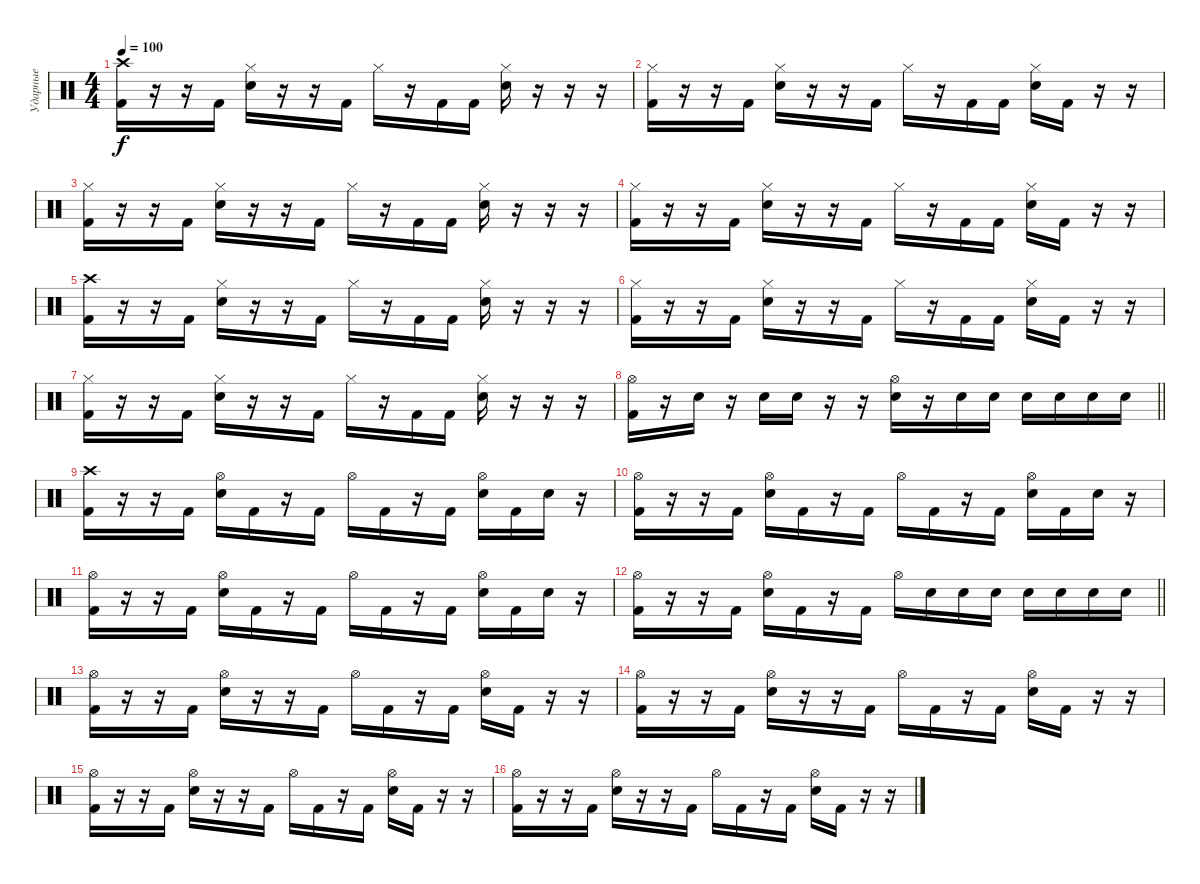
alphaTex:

\track ("Ударные" "Ударные") {instrument percussion}
\staff {score}
\articulation defaults
\ts (4 4)
\tempo 100
\clef neutral
\ks c
("Crash high (hit)" "Kick (hit) 2").16{dy f} r.16 r.16 "Kick (hit) 2".16 ("Hi-Hat (closed)" "Electric Snare (hit)").16 r.16 r.16 "Kick (hit) 2".16 "Hi-Hat (closed)".16 r.16 "Kick (hit) 2".16 "Kick (hit) 2".16 ("Hi-Hat (closed)" "Electric Snare (hit)").16 r.16 r.16 r.16 |
("Hi-Hat (closed)" "Kick (hit) 2").16 r.16 r.16 "Kick (hit) 2".16 ("Hi-Hat (closed)" "Electric Snare (hit)").16 r.16 r.16 "Kick (hit) 2".16 "Hi-Hat (closed)".16 r.16 "Kick (hit) 2".16 "Kick (hit) 2".16 ("Hi-Hat (closed)" "Electric Snare (hit)").16 "Kick (hit) 2".16 r.16 r.16 |
("Hi-Hat (closed)" "Kick (hit) 2").16 r.16 r.16 "Kick (hit) 2".16 ("Hi-Hat (closed)" "Electric Snare (hit)").16 r.16 r.16 "Kick (hit) 2".16 "Hi-Hat (closed)".16 r.16 "Kick (hit) 2".16 "Kick (hit) 2".16 ("Hi-Hat (closed)" "Electric Snare (hit)").16 r.16 r.16 r.16 |
("Hi-Hat (closed)" "Kick (hit) 2").16 r.16 r.16 "Kick (hit) 2".16 ("Hi-Hat (closed)" "Electric Snare (hit)").16 r.16 r.16 "Kick (hit) 2".16 "Hi-Hat (closed)".16 r.16 "Kick (hit) 2".16 "Kick (hit) 2".16 ("Hi-Hat (closed)" "Electric Snare (hit)").16 "Kick (hit) 2".16 r.16 r.16 |
("Crash high (hit)" "Kick (hit) 2").16 r.16 r.16 "Kick (hit) 2".16 ("Hi-Hat (closed)" "Electric Snare (hit)").16 r.16 r.16 "Kick (hit) 2".16 "Hi-Hat (closed)".16 r.16 "Kick (hit) 2".16 "Kick (hit) 2".16 ("Hi-Hat (closed)" "Electric Snare (hit)").16 r.16 r.16 r.16 |
("Hi-Hat (closed)" "Kick (hit) 2").16 r.16 r.16 "Kick (hit) 2".16 ("Hi-Hat (closed)" "Electric Snare (hit)").16 r.16 r.16 "Kick (hit) 2".16 "Hi-Hat (closed)".16 r.16 "Kick (hit) 2".16 "Kick (hit) 2".16 ("Hi-Hat (closed)" "Electric Snare (hit)").16 "Kick (hit) 2".16 r.16 r.16 |
("Hi-Hat (closed)" "Kick (hit) 2").16 r.16 r.16 "Kick (hit) 2".16 ("Hi-Hat (closed)" "Electric Snare (hit)").16 r.16 r.16 "Kick (hit) 2".16 "Hi-Hat (closed)".16 r.16 "Kick (hit) 2".16 "Kick (hit) 2".16 ("Hi-Hat (closed)" "Electric Snare (hit)").16 r.16 r.16 r.16 |
\barLineRight lightlight
("Hi-Hat (open)" "Kick (hit) 2").16 r.16 "Electric Snare (hit)".16 r.16 "Electric Snare (hit)".16 "Electric Snare (hit)".16 r.16 r.16 ("Hi-Hat (open)" "Electric Snare (hit)").16 r.16 "Electric Snare (hit)".16 "Electric Snare (hit)".16 "Electric Snare (hit)".16 "Electric Snare (hit)".16 "Electric Snare (hit)".16 "Electric Snare (hit)".16 |
("Crash high (hit)" "Kick (hit) 2").16 r.16 r.16 "Kick (hit) 2".16 ("Hi-Hat (open)" "Electric Snare (hit)").16 "Kick (hit) 2".16 r.16 "Kick (hit) 2".16 "Hi-Hat (open)".16 "Kick (hit) 2".16 r.16 "Kick (hit) 2".16 ("Hi-Hat (open)" "Electric Snare (hit)").16 "Kick (hit) 2".16 "Electric Snare (hit)".16 r.16 |
("Hi-Hat (open)" "Kick (hit) 2").16 r.16 r.16 "Kick (hit) 2".16 ("Hi-Hat (open)" "Electric Snare (hit)").16 "Kick (hit) 2".16 r.16 "Kick (hit) 2".16 "Hi-Hat (open)".16 "Kick (hit) 2".16 r.16 "Kick (hit) 2".16 ("Hi-Hat (open)" "Electric Snare (hit)").16 "Kick (hit) 2".16 "Electric Snare (hit)".16 r.16 |
("Hi-Hat (open)" "Kick (hit) 2").16 r.16 r.16 "Kick (hit) 2".16 ("Hi-Hat (open)" "Electric Snare (hit)").16 "Kick (hit) 2".16 r.16 "Kick (hit) 2".16 "Hi-Hat (open)".16 "Kick (hit) 2".16 r.16 "Kick (hit) 2".16 ("Hi-Hat (open)" "Electric Snare (hit)").16 "Kick (hit) 2".16 "Electric Snare (hit)".16 r.16 |
\barLineRight lightlight
("Hi-Hat (open)" "Kick (hit) 2").16 r.16 r.16 "Kick (hit) 2".16 ("Hi-Hat (open)" "Electric Snare (hit)").16 "Kick (hit) 2".16 r.16 "Kick (hit) 2".16 "Hi-Hat (open)".16 "Electric Snare (hit)".16 "Electric Snare (hit)".16 "Electric Snare (hit)".16 "Electric Snare (hit)".16 "Electric Snare (hit)".16 "Electric Snare (hit)".16 "Electric Snare (hit)".16 |
("Hi-Hat (open)" "Kick (hit) 2").16 r.16 r.16 "Kick (hit) 2".16 ("Hi-Hat (open)" "Electric Snare (hit)").16 r.16 r.16 "Kick (hit) 2".16 "Hi-Hat (open)".16 "Kick (hit) 2".16 r.16 "Kick (hit) 2".16 ("Hi-Hat (open)" "Electric Snare (hit)").16 "Kick (hit) 2".16 r.16 r.16 |
("Hi-Hat (open)" "Kick (hit) 2").16 r.16 r.16 "Kick (hit) 2".16 ("Hi-Hat (open)" "Electric Snare (hit)").16 r.16 r.16 "Kick (hit) 2".16 "Hi-Hat (open)".16 "Kick (hit) 2".16 r.16 "Kick (hit) 2".16 ("Hi-Hat (open)" "Electric Snare (hit)").16 "Kick (hit) 2".16 r.16 r.16 |
("Hi-Hat (open)" "Kick (hit) 2").16 r.16 r.16 "Kick (hit) 2".16 ("Hi-Hat (open)" "Electric Snare (hit)").16 r.16 r.16 "Kick (hit) 2".16 "Hi-Hat (open)".16 "Kick (hit) 2".16 r.16 "Kick (hit) 2".16 ("Hi-Hat (open)" "Electric Snare (hit)").16 "Kick (hit) 2".16 r.16 r.16 |
("Hi-Hat (open)" "Kick (hit) 2").16 r.16 r.16 "Kick (hit) 2".16 ("Hi-Hat (open)" "Electric Snare (hit)").16 r.16 r.16 "Kick (hit) 2".16 "Hi-Hat (open)".16 "Kick (hit) 2".16 r.16 "Kick (hit) 2".16 ("Hi-Hat (open)" "Electric Snare (hit)").16 "Kick (hit) 2".16 r.16 r.16
